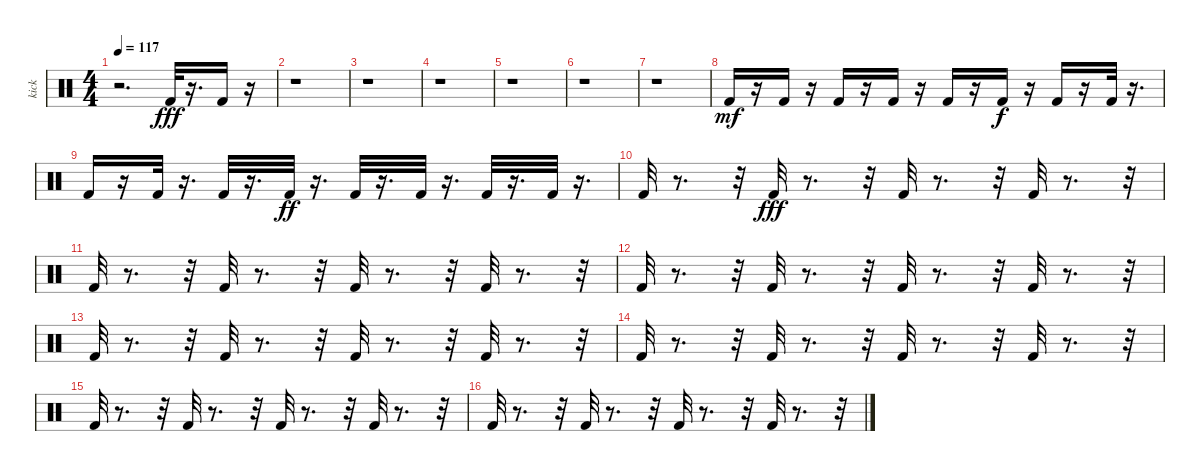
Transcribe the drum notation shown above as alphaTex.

\track ("kick" "kick") {instrument percussion}
\staff {score}
\articulation defaults
\ts (4 4)
\tempo 117
\clef neutral
\ks c
r.2{d dy fff} "Kick (hit) 2".32 r.16{d} "Kick (hit) 2".16 r.16 |
r.1 |
r.1 |
r.1 |
r.1 |
r.1 |
r.1 |
"Kick (hit) 2".16{dy mf} r.16 "Kick (hit) 2".16 r.16 "Kick (hit) 2".16 r.16 "Kick (hit) 2".16 r.16 "Kick (hit) 2".16 r.16 "Kick (hit) 2".16{dy f} r.16 "Kick (hit) 2".16 r.16 "Kick (hit) 2".32 r.16{d} |
"Kick (hit) 2".16 r.16 "Kick (hit) 2".32 r.16{d} "Kick (hit) 2".32 r.16{d} "Kick (hit) 2".32{dy ff} r.16{d} "Kick (hit) 2".32 r.16{d} "Kick (hit) 2".32 r.16{d} "Kick (hit) 2".32 r.16{d} "Kick (hit) 2".32 r.16{d} |
"Kick (hit) 2".32 r.8{d} r.32 "Kick (hit) 2".32{dy fff} r.8{d} r.32 "Kick (hit) 2".32 r.8{d} r.32 "Kick (hit) 2".32 r.8{d} r.32 |
"Kick (hit) 2".32 r.8{d} r.32 "Kick (hit) 2".32 r.8{d} r.32 "Kick (hit) 2".32 r.8{d} r.32 "Kick (hit) 2".32 r.8{d} r.32 |
"Kick (hit) 2".32 r.8{d} r.32 "Kick (hit) 2".32 r.8{d} r.32 "Kick (hit) 2".32 r.8{d} r.32 "Kick (hit) 2".32 r.8{d} r.32 |
"Kick (hit) 2".32 r.8{d} r.32 "Kick (hit) 2".32 r.8{d} r.32 "Kick (hit) 2".32 r.8{d} r.32 "Kick (hit) 2".32 r.8{d} r.32 |
"Kick (hit) 2".32 r.8{d} r.32 "Kick (hit) 2".32 r.8{d} r.32 "Kick (hit) 2".32 r.8{d} r.32 "Kick (hit) 2".32 r.8{d} r.32 |
"Kick (hit) 2".32 r.8{d} r.32 "Kick (hit) 2".32 r.8{d} r.32 "Kick (hit) 2".32 r.8{d} r.32 "Kick (hit) 2".32 r.8{d} r.32 |
"Kick (hit) 2".32 r.8{d} r.32 "Kick (hit) 2".32 r.8{d} r.32 "Kick (hit) 2".32 r.8{d} r.32 "Kick (hit) 2".32 r.8{d} r.32
